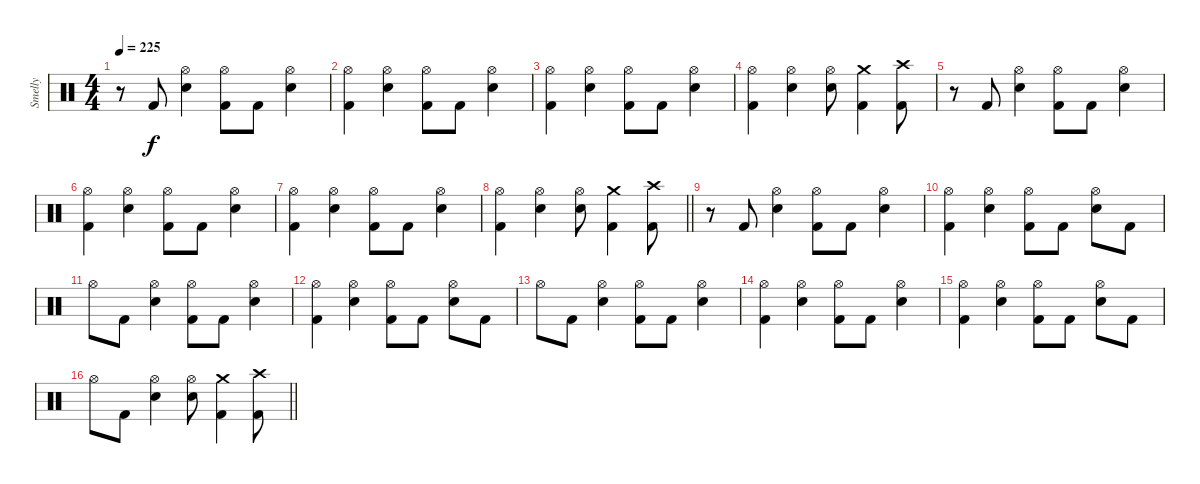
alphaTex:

\track ("Smelly" "Smelly") {instrument percussion}
\staff {score}
\articulation defaults
\ts (4 4)
\section ("" "")
\tempo 225
\clef neutral
\ks c
r.8{dy f} "Kick (hit) 2".8 ("Hi-Hat (open)" "Electric Snare (hit)").4 ("Hi-Hat (open)" "Kick (hit) 2").8 "Kick (hit) 2".8 ("Hi-Hat (open)" "Electric Snare (hit)").4 |
("Hi-Hat (open)" "Kick (hit) 2").4 ("Hi-Hat (open)" "Electric Snare (hit)").4 ("Hi-Hat (open)" "Kick (hit) 2").8 "Kick (hit) 2".8 ("Hi-Hat (open)" "Electric Snare (hit)").4 |
("Hi-Hat (open)" "Kick (hit) 2").4 ("Hi-Hat (open)" "Electric Snare (hit)").4 ("Hi-Hat (open)" "Kick (hit) 2").8 "Kick (hit) 2".8 ("Hi-Hat (open)" "Electric Snare (hit)").4 |
("Hi-Hat (open)" "Kick (hit) 2").4 ("Hi-Hat (open)" "Electric Snare (hit)").4 ("Hi-Hat (open)" "Electric Snare (hit)").8 ("Crash medium (hit)" "Kick (hit) 2").4 ("Crash high (hit)" "Kick (hit) 2").8 |
r.8 "Kick (hit) 2".8 ("Hi-Hat (open)" "Electric Snare (hit)").4 ("Hi-Hat (open)" "Kick (hit) 2").8 "Kick (hit) 2".8 ("Hi-Hat (open)" "Electric Snare (hit)").4 |
("Hi-Hat (open)" "Kick (hit) 2").4 ("Hi-Hat (open)" "Electric Snare (hit)").4 ("Hi-Hat (open)" "Kick (hit) 2").8 "Kick (hit) 2".8 ("Hi-Hat (open)" "Electric Snare (hit)").4 |
("Hi-Hat (open)" "Kick (hit) 2").4 ("Hi-Hat (open)" "Electric Snare (hit)").4 ("Hi-Hat (open)" "Kick (hit) 2").8 "Kick (hit) 2".8 ("Hi-Hat (open)" "Electric Snare (hit)").4 |
\barLineRight lightlight
("Hi-Hat (open)" "Kick (hit) 2").4 ("Hi-Hat (open)" "Electric Snare (hit)").4 ("Hi-Hat (open)" "Electric Snare (hit)").8 ("Crash medium (hit)" "Kick (hit) 2").4 ("Crash high (hit)" "Kick (hit) 2").8 |
\section ("" "")
r.8 "Kick (hit) 2".8 ("Hi-Hat (open)" "Electric Snare (hit)").4 ("Hi-Hat (open)" "Kick (hit) 2").8 "Kick (hit) 2".8 ("Hi-Hat (open)" "Electric Snare (hit)").4 |
("Hi-Hat (open)" "Kick (hit) 2").4 ("Hi-Hat (open)" "Electric Snare (hit)").4 ("Hi-Hat (open)" "Kick (hit) 2").8 "Kick (hit) 2".8 ("Hi-Hat (open)" "Electric Snare (hit)").8 "Kick (hit) 2".8 |
"Hi-Hat (open)".8 "Kick (hit) 2".8 ("Hi-Hat (open)" "Electric Snare (hit)").4 ("Hi-Hat (open)" "Kick (hit) 2").8 "Kick (hit) 2".8 ("Hi-Hat (open)" "Electric Snare (hit)").4 |
("Hi-Hat (open)" "Kick (hit) 2").4 ("Hi-Hat (open)" "Electric Snare (hit)").4 ("Hi-Hat (open)" "Kick (hit) 2").8 "Kick (hit) 2".8 ("Hi-Hat (open)" "Electric Snare (hit)").8 "Kick (hit) 2".8 |
"Hi-Hat (open)".8 "Kick (hit) 2".8 ("Hi-Hat (open)" "Electric Snare (hit)").4 ("Hi-Hat (open)" "Kick (hit) 2").8 "Kick (hit) 2".8 ("Hi-Hat (open)" "Electric Snare (hit)").4 |
("Hi-Hat (open)" "Kick (hit) 2").4 ("Hi-Hat (open)" "Electric Snare (hit)").4 ("Hi-Hat (open)" "Kick (hit) 2").8 "Kick (hit) 2".8 ("Hi-Hat (open)" "Electric Snare (hit)").4 |
("Hi-Hat (open)" "Kick (hit) 2").4 ("Hi-Hat (open)" "Electric Snare (hit)").4 ("Hi-Hat (open)" "Kick (hit) 2").8 "Kick (hit) 2".8 ("Hi-Hat (open)" "Electric Snare (hit)").8 "Kick (hit) 2".8 |
\barLineRight lightlight "Hi-Hat (open)".8 "Kick (hit) 2".8
("Hi-Hat (open)" "Electric Snare (hit)").4 ("Hi-Hat (open)" "Electric Snare (hit)").8 ("Crash medium (hit)" "Kick (hit) 2").4 ("Crash high (hit)" "Kick (hit) 2").8
